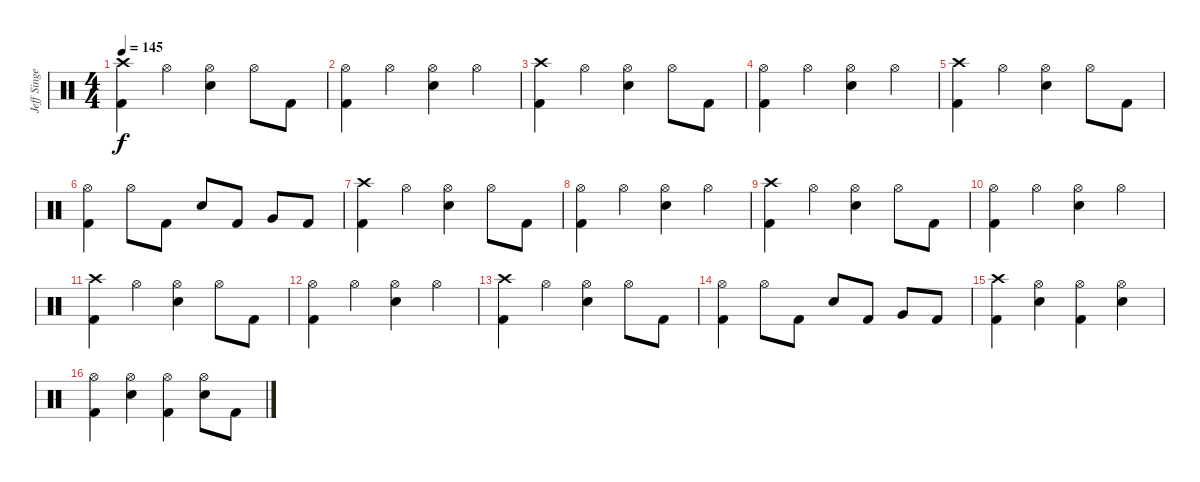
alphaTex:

\track ("Jeff Singer" "Jeff Singe") {instrument percussion}
\staff {score}
\articulation defaults
\ts (4 4)
\tempo 145
\clef neutral
\ks c
("Crash high (hit)" "Kick (hit) 2").4{dy f} "Hi-Hat (open)".4 ("Hi-Hat (open)" "Snare (hit) 2").4 "Hi-Hat (open)".8 "Kick (hit) 2".8 |
("Hi-Hat (open)" "Kick (hit) 2").4 "Hi-Hat (open)".4 ("Hi-Hat (open)" "Snare (hit) 2").4 "Hi-Hat (open)".4 |
("Crash high (hit)" "Kick (hit) 2").4 "Hi-Hat (open)".4 ("Hi-Hat (open)" "Snare (hit) 2").4 "Hi-Hat (open)".8 "Kick (hit) 2".8 |
("Hi-Hat (open)" "Kick (hit) 2").4 "Hi-Hat (open)".4 ("Hi-Hat (open)" "Snare (hit) 2").4 "Hi-Hat (open)".4 |
("Crash high (hit)" "Kick (hit) 2").4 "Hi-Hat (open)".4 ("Hi-Hat (open)" "Snare (hit) 2").4 "Hi-Hat (open)".8 "Kick (hit) 2".8 |
("Hi-Hat (open)" "Kick (hit) 2").4 "Hi-Hat (open)".8 "Kick (hit) 2".8 "Electric Snare (hit)".8 "Kick (hit) 2".8 "Very Low Tom (hit)".8 "Kick (hit) 2".8 |
("Crash high (hit)" "Kick (hit) 2").4 "Hi-Hat (open)".4 ("Hi-Hat (open)" "Snare (hit) 2").4 "Hi-Hat (open)".8 "Kick (hit) 2".8 |
("Hi-Hat (open)" "Kick (hit) 2").4 "Hi-Hat (open)".4 ("Hi-Hat (open)" "Snare (hit) 2").4 "Hi-Hat (open)".4 |
("Crash high (hit)" "Kick (hit) 2").4 "Hi-Hat (open)".4 ("Hi-Hat (open)" "Snare (hit) 2").4 "Hi-Hat (open)".8 "Kick (hit) 2".8 |
("Hi-Hat (open)" "Kick (hit) 2").4 "Hi-Hat (open)".4 ("Hi-Hat (open)" "Snare (hit) 2").4 "Hi-Hat (open)".4 |
("Crash high (hit)" "Kick (hit) 2").4 "Hi-Hat (open)".4 ("Hi-Hat (open)" "Snare (hit) 2").4 "Hi-Hat (open)".8 "Kick (hit) 2".8 |
("Hi-Hat (open)" "Kick (hit) 2").4 "Hi-Hat (open)".4 ("Hi-Hat (open)" "Snare (hit) 2").4 "Hi-Hat (open)".4 |
("Crash high (hit)" "Kick (hit) 2").4 "Hi-Hat (open)".4 ("Hi-Hat (open)" "Snare (hit) 2").4 "Hi-Hat (open)".8 "Kick (hit) 2".8 |
("Hi-Hat (open)" "Kick (hit) 2").4 "Hi-Hat (open)".8 "Kick (hit) 2".8 "Electric Snare (hit)".8 "Kick (hit) 2".8 "Very Low Tom (hit)".8 "Kick (hit) 2".8 |
("Crash high (hit)" "Kick (hit) 2").4 ("Hi-Hat (open)" "Electric Snare (hit)").4 ("Hi-Hat (open)" "Kick (hit) 2").4 ("Hi-Hat (open)" "Electric Snare (hit)").4 |
("Hi-Hat (open)" "Kick (hit) 2").4 ("Hi-Hat (open)" "Electric Snare (hit)").4 ("Hi-Hat (open)" "Kick (hit) 2").4 ("Hi-Hat (open)" "Electric Snare (hit)").8 "Kick (hit) 2".8
